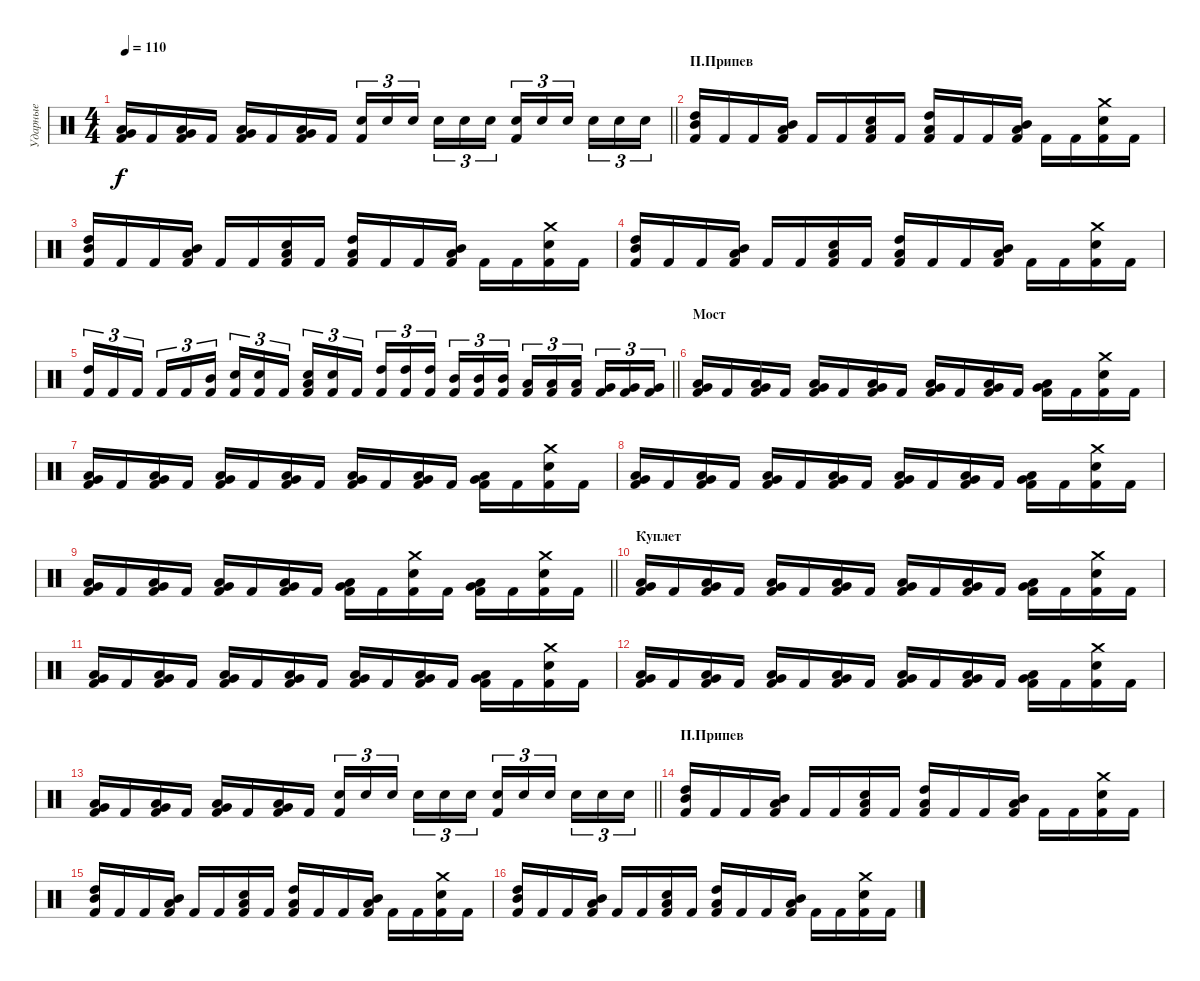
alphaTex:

\track ("Ударные" "Ударные") {instrument percussion}
\staff {score}
\articulation defaults
\ts (4 4)
\tempo 110
\clef neutral
\barLineRight lightlight
\ks c
("Low Floor Tom (hit)" "Very Low Tom (hit)" "Kick (hit) 2").16{dy f} "Kick (hit) 2".16 ("Low Floor Tom (hit)" "Very Low Tom (hit)" "Kick (hit) 2").16 "Kick (hit) 2".16 ("Low Floor Tom (hit)" "Very Low Tom (hit)" "Kick (hit) 2").16 "Kick (hit) 2".16 ("Low Floor Tom (hit)" "Very Low Tom (hit)" "Kick (hit) 2").16 "Kick (hit) 2".16 ("Snare (hit) 2" "Kick (hit) 2").16{tu (3 2)} "Snare (hit) 2".16{tu (3 2)} "Snare (hit) 2".16{tu (3 2) beam splitsecondary} "Snare (hit) 2".16{tu (3 2)} "Snare (hit) 2".16{tu (3 2)} "Snare (hit) 2".16{tu (3 2)} ("Snare (hit) 2" "Kick (hit) 2").16{tu (3 2)} "Snare (hit) 2".16{tu (3 2)} "Snare (hit) 2".16{tu (3 2) beam splitsecondary} "Snare (hit) 2".16{tu (3 2)} "Snare (hit) 2".16{tu (3 2)} "Snare (hit) 2".16{tu (3 2)} |
\section ("" "П.Припев")
("Mid Tom (hit)" "High Tom (hit)" "Kick (hit) 2").16 "Kick (hit) 2".16 "Kick (hit) 2".16 ("Low Tom (hit)" "Mid Tom (hit)" "Kick (hit) 2").16 "Kick (hit) 2".16 "Kick (hit) 2".16 ("Low Tom (hit)" "Snare (hit) 2" "Kick (hit) 2").16 "Kick (hit) 2".16 ("Low Tom (hit)" "High Tom (hit)" "Kick (hit) 2").16 "Kick (hit) 2".16 "Kick (hit) 2".16 ("Mid Tom (hit)" "Low Tom (hit)" "Kick (hit) 2").16 "Kick (hit) 2".16 "Kick (hit) 2".16 ("Crash medium (hit)" "Snare (hit) 2" "Kick (hit) 2").16 "Kick (hit) 2".16 |
("Mid Tom (hit)" "High Tom (hit)" "Kick (hit) 2").16 "Kick (hit) 2".16 "Kick (hit) 2".16 ("Low Tom (hit)" "Mid Tom (hit)" "Kick (hit) 2").16 "Kick (hit) 2".16 "Kick (hit) 2".16 ("Low Tom (hit)" "Snare (hit) 2" "Kick (hit) 2").16 "Kick (hit) 2".16 ("Low Tom (hit)" "High Tom (hit)" "Kick (hit) 2").16 "Kick (hit) 2".16 "Kick (hit) 2".16 ("Mid Tom (hit)" "Low Tom (hit)" "Kick (hit) 2").16 "Kick (hit) 2".16 "Kick (hit) 2".16 ("Crash medium (hit)" "Snare (hit) 2" "Kick (hit) 2").16 "Kick (hit) 2".16 |
("Mid Tom (hit)" "High Tom (hit)" "Kick (hit) 2").16 "Kick (hit) 2".16 "Kick (hit) 2".16 ("Low Tom (hit)" "Mid Tom (hit)" "Kick (hit) 2").16 "Kick (hit) 2".16 "Kick (hit) 2".16 ("Low Tom (hit)" "Snare (hit) 2" "Kick (hit) 2").16 "Kick (hit) 2".16 ("Low Tom (hit)" "High Tom (hit)" "Kick (hit) 2").16 "Kick (hit) 2".16 "Kick (hit) 2".16 ("Mid Tom (hit)" "Low Tom (hit)" "Kick (hit) 2").16 "Kick (hit) 2".16 "Kick (hit) 2".16 ("Crash medium (hit)" "Snare (hit) 2" "Kick (hit) 2").16 "Kick (hit) 2".16 |
\barLineRight lightlight
("High Tom (hit)" "Kick (hit) 2").16{tu (3 2)} "Kick (hit) 2".16{tu (3 2)} "Kick (hit) 2".16{tu (3 2) beam splitsecondary} "Kick (hit) 2".16{tu (3 2)} "Kick (hit) 2".16{tu (3 2)} ("Mid Tom (hit)" "Kick (hit) 2").16{tu (3 2)} ("Snare (hit) 2" "Kick (hit) 2").16{tu (3 2)} ("Snare (hit) 2" "Kick (hit) 2").16{tu (3 2)} "Kick (hit) 2".16{tu (3 2) beam splitsecondary} ("Low Tom (hit)" "Snare (hit) 2" "Kick (hit) 2").16{tu (3 2)} ("Snare (hit) 2" "Kick (hit) 2").16{tu (3 2)} "Kick (hit) 2".16{tu (3 2)} ("High Tom (hit)" "Kick (hit) 2").16{tu (3 2)} ("High Tom (hit)" "Kick (hit) 2").16{tu (3 2)} ("High Tom (hit)" "Kick (hit) 2").16{tu (3 2) beam splitsecondary} ("Mid Tom (hit)" "Kick (hit) 2").16{tu (3 2)} ("Mid Tom (hit)" "Kick (hit) 2").16{tu (3 2)} ("Mid Tom (hit)" "Kick (hit) 2").16{tu (3 2)} ("Low Tom (hit)" "Kick (hit) 2").16{tu (3 2)} ("Low Tom (hit)" "Kick (hit) 2").16{tu (3 2)} ("Low Tom (hit)" "Kick (hit) 2").16{tu (3 2) beam splitsecondary} ("Very Low Tom (hit)" "Kick (hit) 2").16{tu (3 2)} ("Very Low Tom (hit)" "Kick (hit) 2").16{tu (3 2)} ("Very Low Tom (hit)" "Kick (hit) 2").16{tu (3 2)} |
\section ("" "Мост")
("Low Floor Tom (hit)" "Very Low Tom (hit)" "Kick (hit) 2").16 "Kick (hit) 2".16 ("Low Floor Tom (hit)" "Very Low Tom (hit)" "Kick (hit) 2").16 "Kick (hit) 2".16 ("Low Floor Tom (hit)" "Very Low Tom (hit)" "Kick (hit) 2").16 "Kick (hit) 2".16 ("Low Floor Tom (hit)" "Very Low Tom (hit)" "Kick (hit) 2").16 "Kick (hit) 2".16 ("Low Floor Tom (hit)" "Very Low Tom (hit)" "Kick (hit) 2").16 "Kick (hit) 2".16 ("Low Floor Tom (hit)" "Very Low Tom (hit)" "Kick (hit) 2").16 "Kick (hit) 2".16 ("Low Floor Tom (hit)" "Very Low Tom (hit)" "Kick (hit) 2").16 "Kick (hit) 2".16 ("Crash medium (hit)" "Snare (hit) 2" "Kick (hit) 2").16 "Kick (hit) 2".16 |
("Low Floor Tom (hit)" "Very Low Tom (hit)" "Kick (hit) 2").16 "Kick (hit) 2".16 ("Low Floor Tom (hit)" "Very Low Tom (hit)" "Kick (hit) 2").16 "Kick (hit) 2".16 ("Low Floor Tom (hit)" "Very Low Tom (hit)" "Kick (hit) 2").16 "Kick (hit) 2".16 ("Low Floor Tom (hit)" "Very Low Tom (hit)" "Kick (hit) 2").16 "Kick (hit) 2".16 ("Low Floor Tom (hit)" "Very Low Tom (hit)" "Kick (hit) 2").16 "Kick (hit) 2".16 ("Low Floor Tom (hit)" "Very Low Tom (hit)" "Kick (hit) 2").16 "Kick (hit) 2".16 ("Low Floor Tom (hit)" "Very Low Tom (hit)" "Kick (hit) 2").16 "Kick (hit) 2".16 ("Crash medium (hit)" "Snare (hit) 2" "Kick (hit) 2").16 "Kick (hit) 2".16 |
("Low Floor Tom (hit)" "Very Low Tom (hit)" "Kick (hit) 2").16 "Kick (hit) 2".16 ("Low Floor Tom (hit)" "Very Low Tom (hit)" "Kick (hit) 2").16 "Kick (hit) 2".16 ("Low Floor Tom (hit)" "Very Low Tom (hit)" "Kick (hit) 2").16 "Kick (hit) 2".16 ("Low Floor Tom (hit)" "Very Low Tom (hit)" "Kick (hit) 2").16 "Kick (hit) 2".16 ("Low Floor Tom (hit)" "Very Low Tom (hit)" "Kick (hit) 2").16 "Kick (hit) 2".16 ("Low Floor Tom (hit)" "Very Low Tom (hit)" "Kick (hit) 2").16 "Kick (hit) 2".16 ("Low Floor Tom (hit)" "Very Low Tom (hit)" "Kick (hit) 2").16 "Kick (hit) 2".16 ("Crash medium (hit)" "Snare (hit) 2" "Kick (hit) 2").16 "Kick (hit) 2".16 |
\barLineRight lightlight
("Low Floor Tom (hit)" "Very Low Tom (hit)" "Kick (hit) 2").16 "Kick (hit) 2".16 ("Low Floor Tom (hit)" "Very Low Tom (hit)" "Kick (hit) 2").16 "Kick (hit) 2".16 ("Low Floor Tom (hit)" "Very Low Tom (hit)" "Kick (hit) 2").16 "Kick (hit) 2".16 ("Low Floor Tom (hit)" "Very Low Tom (hit)" "Kick (hit) 2").16 "Kick (hit) 2".16 ("Low Floor Tom (hit)" "Very Low Tom (hit)" "Kick (hit) 2").16 "Kick (hit) 2".16 ("Crash medium (hit)" "Snare (hit) 2" "Kick (hit) 2").16 "Kick (hit) 2".16 ("Low Floor Tom (hit)" "Very Low Tom (hit)" "Kick (hit) 2").16 "Kick (hit) 2".16 ("Crash medium (hit)" "Snare (hit) 2" "Kick (hit) 2").16 "Kick (hit) 2".16 |
\section ("" "Куплет")
("Low Floor Tom (hit)" "Very Low Tom (hit)" "Kick (hit) 2").16 "Kick (hit) 2".16 ("Low Floor Tom (hit)" "Very Low Tom (hit)" "Kick (hit) 2").16 "Kick (hit) 2".16 ("Low Floor Tom (hit)" "Very Low Tom (hit)" "Kick (hit) 2").16 "Kick (hit) 2".16 ("Low Floor Tom (hit)" "Very Low Tom (hit)" "Kick (hit) 2").16 "Kick (hit) 2".16 ("Low Floor Tom (hit)" "Very Low Tom (hit)" "Kick (hit) 2").16 "Kick (hit) 2".16 ("Low Floor Tom (hit)" "Very Low Tom (hit)" "Kick (hit) 2").16 "Kick (hit) 2".16 ("Low Floor Tom (hit)" "Very Low Tom (hit)" "Kick (hit) 2").16 "Kick (hit) 2".16 ("Crash medium (hit)" "Snare (hit) 2" "Kick (hit) 2").16 "Kick (hit) 2".16 |
("Low Floor Tom (hit)" "Very Low Tom (hit)" "Kick (hit) 2").16 "Kick (hit) 2".16 ("Low Floor Tom (hit)" "Very Low Tom (hit)" "Kick (hit) 2").16 "Kick (hit) 2".16 ("Low Floor Tom (hit)" "Very Low Tom (hit)" "Kick (hit) 2").16 "Kick (hit) 2".16 ("Low Floor Tom (hit)" "Very Low Tom (hit)" "Kick (hit) 2").16 "Kick (hit) 2".16 ("Low Floor Tom (hit)" "Very Low Tom (hit)" "Kick (hit) 2").16 "Kick (hit) 2".16 ("Low Floor Tom (hit)" "Very Low Tom (hit)" "Kick (hit) 2").16 "Kick (hit) 2".16 ("Low Floor Tom (hit)" "Very Low Tom (hit)" "Kick (hit) 2").16 "Kick (hit) 2".16 ("Crash medium (hit)" "Snare (hit) 2" "Kick (hit) 2").16 "Kick (hit) 2".16 |
("Low Floor Tom (hit)" "Very Low Tom (hit)" "Kick (hit) 2").16 "Kick (hit) 2".16 ("Low Floor Tom (hit)" "Very Low Tom (hit)" "Kick (hit) 2").16 "Kick (hit) 2".16 ("Low Floor Tom (hit)" "Very Low Tom (hit)" "Kick (hit) 2").16 "Kick (hit) 2".16 ("Low Floor Tom (hit)" "Very Low Tom (hit)" "Kick (hit) 2").16 "Kick (hit) 2".16 ("Low Floor Tom (hit)" "Very Low Tom (hit)" "Kick (hit) 2").16 "Kick (hit) 2".16 ("Low Floor Tom (hit)" "Very Low Tom (hit)" "Kick (hit) 2").16 "Kick (hit) 2".16 ("Low Floor Tom (hit)" "Very Low Tom (hit)" "Kick (hit) 2").16 "Kick (hit) 2".16 ("Crash medium (hit)" "Snare (hit) 2" "Kick (hit) 2").16 "Kick (hit) 2".16 |
\barLineRight lightlight
("Low Floor Tom (hit)" "Very Low Tom (hit)" "Kick (hit) 2").16 "Kick (hit) 2".16 ("Low Floor Tom (hit)" "Very Low Tom (hit)" "Kick (hit) 2").16 "Kick (hit) 2".16 ("Low Floor Tom (hit)" "Very Low Tom (hit)" "Kick (hit) 2").16 "Kick (hit) 2".16 ("Low Floor Tom (hit)" "Very Low Tom (hit)" "Kick (hit) 2").16 "Kick (hit) 2".16 ("Snare (hit) 2" "Kick (hit) 2").16{tu (3 2)} "Snare (hit) 2".16{tu (3 2)} "Snare (hit) 2".16{tu (3 2) beam splitsecondary} "Snare (hit) 2".16{tu (3 2)} "Snare (hit) 2".16{tu (3 2)} "Snare (hit) 2".16{tu (3 2)} ("Snare (hit) 2" "Kick (hit) 2").16{tu (3 2)} "Snare (hit) 2".16{tu (3 2)} "Snare (hit) 2".16{tu (3 2) beam splitsecondary} "Snare (hit) 2".16{tu (3 2)} "Snare (hit) 2".16{tu (3 2)} "Snare (hit) 2".16{tu (3 2)} |
\section ("" "П.Припев")
("Mid Tom (hit)" "High Tom (hit)" "Kick (hit) 2").16 "Kick (hit) 2".16 "Kick (hit) 2".16 ("Low Tom (hit)" "Mid Tom (hit)" "Kick (hit) 2").16 "Kick (hit) 2".16 "Kick (hit) 2".16 ("Low Tom (hit)" "Snare (hit) 2" "Kick (hit) 2").16 "Kick (hit) 2".16 ("Low Tom (hit)" "High Tom (hit)" "Kick (hit) 2").16 "Kick (hit) 2".16 "Kick (hit) 2".16 ("Mid Tom (hit)" "Low Tom (hit)" "Kick (hit) 2").16 "Kick (hit) 2".16 "Kick (hit) 2".16 ("Crash medium (hit)" "Snare (hit) 2" "Kick (hit) 2").16 "Kick (hit) 2".16 |
("Mid Tom (hit)" "High Tom (hit)" "Kick (hit) 2").16 "Kick (hit) 2".16 "Kick (hit) 2".16 ("Low Tom (hit)" "Mid Tom (hit)" "Kick (hit) 2").16 "Kick (hit) 2".16 "Kick (hit) 2".16 ("Low Tom (hit)" "Snare (hit) 2" "Kick (hit) 2").16 "Kick (hit) 2".16 ("Low Tom (hit)" "High Tom (hit)" "Kick (hit) 2").16 "Kick (hit) 2".16 "Kick (hit) 2".16 ("Mid Tom (hit)" "Low Tom (hit)" "Kick (hit) 2").16 "Kick (hit) 2".16 "Kick (hit) 2".16 ("Crash medium (hit)" "Snare (hit) 2" "Kick (hit) 2").16 "Kick (hit) 2".16 |
("Mid Tom (hit)" "High Tom (hit)" "Kick (hit) 2").16 "Kick (hit) 2".16 "Kick (hit) 2".16 ("Low Tom (hit)" "Mid Tom (hit)" "Kick (hit) 2").16 "Kick (hit) 2".16 "Kick (hit) 2".16 ("Low Tom (hit)" "Snare (hit) 2" "Kick (hit) 2").16 "Kick (hit) 2".16 ("Low Tom (hit)" "High Tom (hit)" "Kick (hit) 2").16 "Kick (hit) 2".16 "Kick (hit) 2".16 ("Mid Tom (hit)" "Low Tom (hit)" "Kick (hit) 2").16 "Kick (hit) 2".16 "Kick (hit) 2".16 ("Crash medium (hit)" "Snare (hit) 2" "Kick (hit) 2").16 "Kick (hit) 2".16
